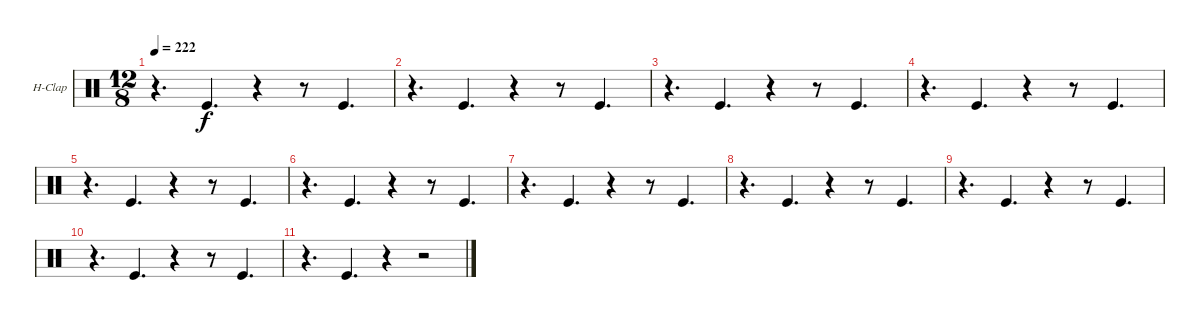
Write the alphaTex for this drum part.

\bracketExtendMode nobrackets
\firstSystemTrackNameOrientation horizontal
\otherSystemsTrackNameOrientation horizontal
\track ("Hand Clap" "H-Clap") {instrument percussion}
\staff {score}
\articulation defaults
\ts (12 8)
\tempo 222
\clef neutral
\ks c
r.4{d dy f} "Kick (hit)".4{d} r.4 r.8 "Kick (hit)".4{d} |
r.4{d} "Kick (hit)".4{d} r.4 r.8 "Kick (hit)".4{d} |
r.4{d} "Kick (hit)".4{d} r.4 r.8 "Kick (hit)".4{d} |
r.4{d} "Kick (hit)".4{d} r.4 r.8 "Kick (hit)".4{d} |
r.4{d} "Kick (hit)".4{d} r.4 r.8 "Kick (hit)".4{d} |
r.4{d} "Kick (hit)".4{d} r.4 r.8 "Kick (hit)".4{d} |
r.4{d} "Kick (hit)".4{d} r.4 r.8 "Kick (hit)".4{d} |
r.4{d} "Kick (hit)".4{d} r.4 r.8 "Kick (hit)".4{d} |
r.4{d} "Kick (hit)".4{d} r.4 r.8 "Kick (hit)".4{d} |
r.4{d} "Kick (hit)".4{d} r.4 r.8 "Kick (hit)".4{d} |
r.4{d} "Kick (hit)".4{d} r.4 r.2
